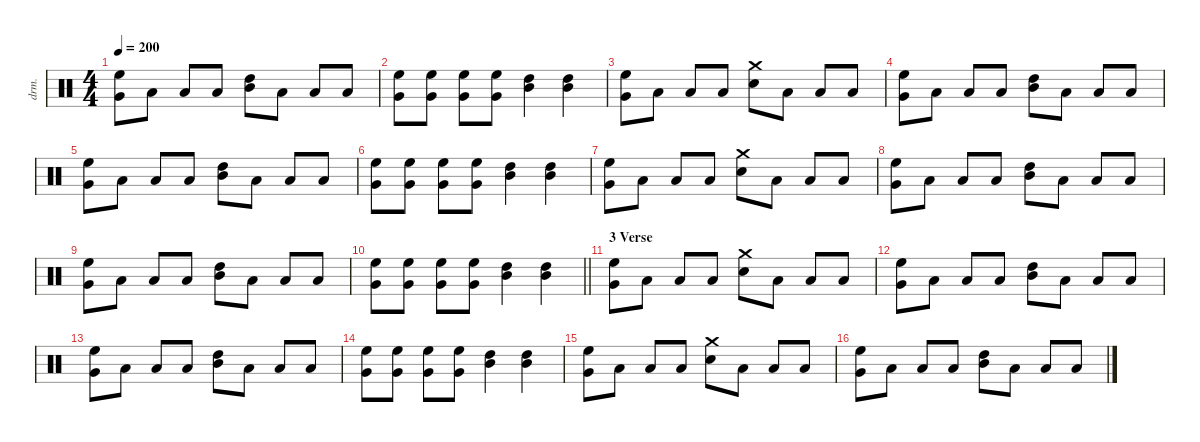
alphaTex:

\defaultSystemsLayout 4
\hideDynamics
\bracketExtendMode nobrackets
\otherSystemsTrackNameOrientation horizontal
\track ("Lars Ulrich (Drums)" "drm.") {instrument percussion}
\staff {score}
\articulation defaults
\ts (4 4)
\tempo 200
\clef neutral
\ks c
("High Floor Tom (hit)" "Very Low Tom (hit)").8{dy f beam Down} "Low Tom (hit)".8{beam Down} "Low Tom (hit)".8{beam Up} "Low Tom (hit)".8{beam Up} ("Mid Tom (hit)" "High Tom (hit)").8{beam Down} "Low Tom (hit)".8{beam Down} "Low Tom (hit)".8{beam Up} "Low Tom (hit)".8{beam Up} |
("High Floor Tom (hit)" "Very Low Tom (hit)").8{beam Down} ("High Floor Tom (hit)" "Very Low Tom (hit)").8{beam Down} ("High Floor Tom (hit)" "Very Low Tom (hit)").8{beam Down} ("High Floor Tom (hit)" "Very Low Tom (hit)").8{beam Down} ("Mid Tom (hit)" "High Tom (hit)").4{beam Down} ("Mid Tom (hit)" "High Tom (hit)").4{beam Down} |
("Very Low Tom (hit)" "High Floor Tom (hit)").8{beam Down} "Low Tom (hit)".8{beam Down} "Low Tom (hit)".8{beam Up} "Low Tom (hit)".8{beam Up} ("Crash medium (hit)" "Snare (hit) 2").8{beam Down} "Low Tom (hit)".8{beam Down} "Low Tom (hit)".8{beam Up} "Low Tom (hit)".8{beam Up} |
("High Floor Tom (hit)" "Very Low Tom (hit)").8{beam Down} "Low Tom (hit)".8{beam Down} "Low Tom (hit)".8{beam Up} "Low Tom (hit)".8{beam Up} ("Mid Tom (hit)" "High Tom (hit)").8{beam Down} "Low Tom (hit)".8{beam Down} "Low Tom (hit)".8{beam Up} "Low Tom (hit)".8{beam Up} |
("High Floor Tom (hit)" "Very Low Tom (hit)").8{beam Down} "Low Tom (hit)".8{beam Down} "Low Tom (hit)".8{beam Up} "Low Tom (hit)".8{beam Up} ("Mid Tom (hit)" "High Tom (hit)").8{beam Down} "Low Tom (hit)".8{beam Down} "Low Tom (hit)".8{beam Up} "Low Tom (hit)".8{beam Up} |
("High Floor Tom (hit)" "Very Low Tom (hit)").8{beam Down} ("High Floor Tom (hit)" "Very Low Tom (hit)").8{beam Down} ("High Floor Tom (hit)" "Very Low Tom (hit)").8{beam Down} ("High Floor Tom (hit)" "Very Low Tom (hit)").8{beam Down} ("Mid Tom (hit)" "High Tom (hit)").4{beam Down} ("Mid Tom (hit)" "High Tom (hit)").4{beam Down} |
("Very Low Tom (hit)" "High Floor Tom (hit)").8{beam Down} "Low Tom (hit)".8{beam Down} "Low Tom (hit)".8{beam Up} "Low Tom (hit)".8{beam Up} ("Crash medium (hit)" "Snare (hit) 2").8{beam Down} "Low Tom (hit)".8{beam Down} "Low Tom (hit)".8{beam Up} "Low Tom (hit)".8{beam Up} |
("High Floor Tom (hit)" "Very Low Tom (hit)").8{beam Down} "Low Tom (hit)".8{beam Down} "Low Tom (hit)".8{beam Up} "Low Tom (hit)".8{beam Up} ("Mid Tom (hit)" "High Tom (hit)").8{beam Down} "Low Tom (hit)".8{beam Down} "Low Tom (hit)".8{beam Up} "Low Tom (hit)".8{beam Up} |
("High Floor Tom (hit)" "Very Low Tom (hit)").8{beam Down} "Low Tom (hit)".8{beam Down} "Low Tom (hit)".8{beam Up} "Low Tom (hit)".8{beam Up} ("Mid Tom (hit)" "High Tom (hit)").8{beam Down} "Low Tom (hit)".8{beam Down} "Low Tom (hit)".8{beam Up} "Low Tom (hit)".8{beam Up} |
\barLineRight lightlight
("High Floor Tom (hit)" "Very Low Tom (hit)").8{beam Down} ("High Floor Tom (hit)" "Very Low Tom (hit)").8{beam Down} ("High Floor Tom (hit)" "Very Low Tom (hit)").8{beam Down} ("High Floor Tom (hit)" "Very Low Tom (hit)").8{beam Down} ("Mid Tom (hit)" "High Tom (hit)").4{beam Down} ("Mid Tom (hit)" "High Tom (hit)").4{beam Down} |
\section ("" "3 Verse")
("Very Low Tom (hit)" "High Floor Tom (hit)").8{beam Down} "Low Tom (hit)".8{beam Down} "Low Tom (hit)".8{beam Up} "Low Tom (hit)".8{beam Up} ("Crash medium (hit)" "Snare (hit) 2").8{beam Down} "Low Tom (hit)".8{beam Down} "Low Tom (hit)".8{beam Up} "Low Tom (hit)".8{beam Up} |
("High Floor Tom (hit)" "Very Low Tom (hit)").8{beam Down} "Low Tom (hit)".8{beam Down} "Low Tom (hit)".8{beam Up} "Low Tom (hit)".8{beam Up} ("Mid Tom (hit)" "High Tom (hit)").8{beam Down} "Low Tom (hit)".8{beam Down} "Low Tom (hit)".8{beam Up} "Low Tom (hit)".8{beam Up} |
("High Floor Tom (hit)" "Very Low Tom (hit)").8{beam Down} "Low Tom (hit)".8{beam Down} "Low Tom (hit)".8{beam Up} "Low Tom (hit)".8{beam Up} ("Mid Tom (hit)" "High Tom (hit)").8{beam Down} "Low Tom (hit)".8{beam Down} "Low Tom (hit)".8{beam Up} "Low Tom (hit)".8{beam Up} |
("High Floor Tom (hit)" "Very Low Tom (hit)").8{beam Down} ("High Floor Tom (hit)" "Very Low Tom (hit)").8{beam Down} ("High Floor Tom (hit)" "Very Low Tom (hit)").8{beam Down} ("High Floor Tom (hit)" "Very Low Tom (hit)").8{beam Down} ("Mid Tom (hit)" "High Tom (hit)").4{beam Down} ("Mid Tom (hit)" "High Tom (hit)").4{beam Down} |
("Very Low Tom (hit)" "High Floor Tom (hit)").8{beam Down} "Low Tom (hit)".8{beam Down} "Low Tom (hit)".8{beam Up} "Low Tom (hit)".8{beam Up} ("Crash medium (hit)" "Snare (hit) 2").8{beam Down} "Low Tom (hit)".8{beam Down} "Low Tom (hit)".8{beam Up} "Low Tom (hit)".8{beam Up} |
("High Floor Tom (hit)" "Very Low Tom (hit)").8{beam Down} "Low Tom (hit)".8{beam Down} "Low Tom (hit)".8{beam Up} "Low Tom (hit)".8{beam Up} ("Mid Tom (hit)" "High Tom (hit)").8{beam Down} "Low Tom (hit)".8{beam Down} "Low Tom (hit)".8{beam Up} "Low Tom (hit)".8{beam Up}
